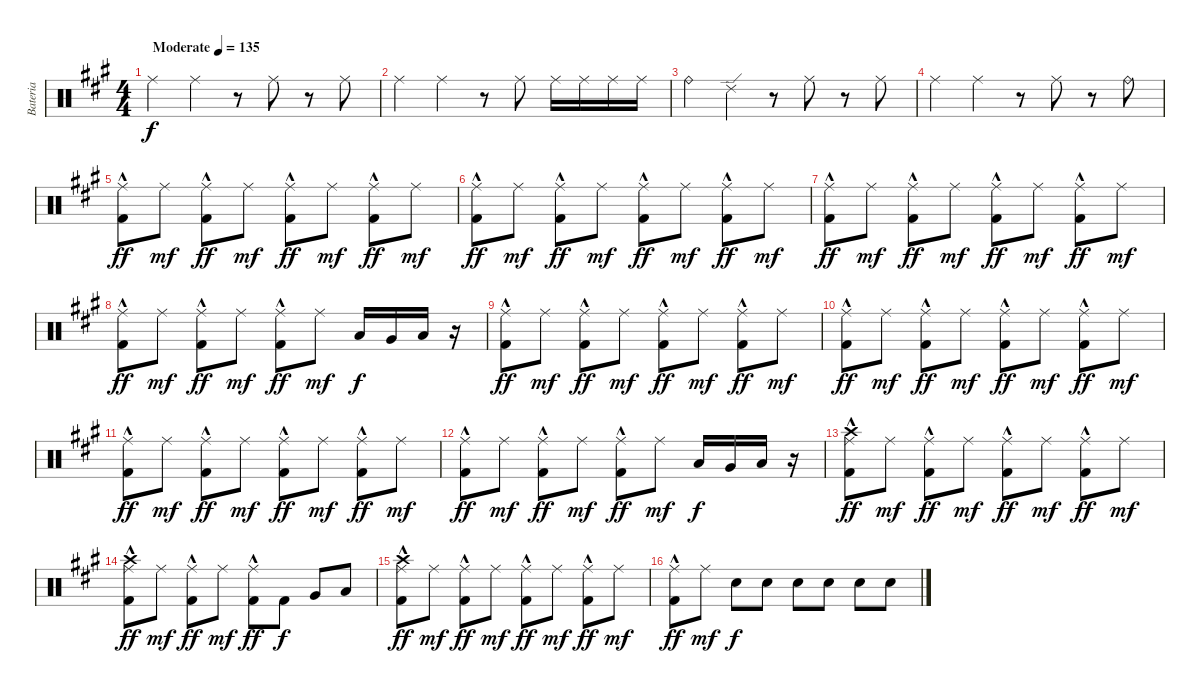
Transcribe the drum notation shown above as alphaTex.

\track ("Bateria" "Bateria") {instrument percussion}
\staff {score}
\articulation defaults
\ts (4 4)
\tempo (135 "Moderate")
\clef neutral
\ks a "Ride (middle)".4{dy f} "Ride (middle)".4
r.8 "Ride (middle)".8 r.8 "Ride (middle)".8 |
"Ride (middle)".4 "Ride (middle)".4 r.8 "Ride (middle)".8 "Ride (middle)".16 "Ride (middle)".16 "Ride (middle)".16 "Ride (middle)".16 |
"Ride (bell)".4 "Ride (edge) 2".4 r.8 "Ride (middle)".8 r.8 "Ride (middle)".8 |
"Ride (middle)".4 "Ride (middle)".4 r.8 "Ride (middle)".8 r.8 "Ride (bell)".8 |
("Ride (middle)"{hac} "Kick (hit) 2"{hac}).8{dy ff} "Ride (middle)".8{dy mf} ("Ride (middle)"{hac} "Kick (hit) 2"{hac}).8{dy ff} "Ride (middle)".8{dy mf} ("Ride (middle)"{hac} "Kick (hit) 2"{hac}).8{dy ff} "Ride (middle)".8{dy mf} ("Ride (middle)"{hac} "Kick (hit) 2"{hac}).8{dy ff} "Ride (middle)".8{dy mf} |
("Ride (middle)"{hac} "Kick (hit) 2"{hac}).8{dy ff} "Ride (middle)".8{dy mf} ("Ride (middle)"{hac} "Kick (hit) 2"{hac}).8{dy ff} "Ride (middle)".8{dy mf} ("Ride (middle)"{hac} "Kick (hit) 2"{hac}).8{dy ff} "Ride (middle)".8{dy mf} ("Ride (middle)"{hac} "Kick (hit) 2"{hac}).8{dy ff} "Ride (middle)".8{dy mf} |
("Ride (middle)"{hac} "Kick (hit) 2"{hac}).8{dy ff} "Ride (middle)".8{dy mf} ("Ride (middle)"{hac} "Kick (hit) 2"{hac}).8{dy ff} "Ride (middle)".8{dy mf} ("Ride (middle)"{hac} "Kick (hit) 2"{hac}).8{dy ff} "Ride (middle)".8{dy mf} ("Ride (middle)"{hac} "Kick (hit) 2"{hac}).8{dy ff} "Ride (middle)".8{dy mf} |
("Ride (middle)"{hac} "Kick (hit) 2"{hac}).8{dy ff} "Ride (middle)".8{dy mf} ("Ride (middle)"{hac} "Kick (hit) 2"{hac}).8{dy ff} "Ride (middle)".8{dy mf} ("Ride (middle)"{hac} "Kick (hit) 2"{hac}).8{dy ff} "Ride (middle)".8{dy mf} "Low Tom (hit)".16{dy f} "Very Low Tom (hit)".16 "Low Floor Tom (hit)".16 r.16 |
("Ride (middle)"{hac} "Kick (hit) 2"{hac}).8{dy ff} "Ride (middle)".8{dy mf} ("Ride (middle)"{hac} "Kick (hit) 2"{hac}).8{dy ff} "Ride (middle)".8{dy mf} ("Ride (middle)"{hac} "Kick (hit) 2"{hac}).8{dy ff} "Ride (middle)".8{dy mf} ("Ride (middle)"{hac} "Kick (hit) 2"{hac}).8{dy ff} "Ride (middle)".8{dy mf} |
("Ride (middle)"{hac} "Kick (hit) 2"{hac}).8{dy ff} "Ride (middle)".8{dy mf} ("Ride (middle)"{hac} "Kick (hit) 2"{hac}).8{dy ff} "Ride (middle)".8{dy mf} ("Ride (middle)"{hac} "Kick (hit) 2"{hac}).8{dy ff} "Ride (middle)".8{dy mf} ("Ride (middle)"{hac} "Kick (hit) 2"{hac}).8{dy ff} "Ride (middle)".8{dy mf} |
("Ride (middle)"{hac} "Kick (hit) 2"{hac}).8{dy ff} "Ride (middle)".8{dy mf} ("Ride (middle)"{hac} "Kick (hit) 2"{hac}).8{dy ff} "Ride (middle)".8{dy mf} ("Ride (middle)"{hac} "Kick (hit) 2"{hac}).8{dy ff} "Ride (middle)".8{dy mf} ("Ride (middle)"{hac} "Kick (hit) 2"{hac}).8{dy ff} "Ride (middle)".8{dy mf} |
("Ride (middle)"{hac} "Kick (hit) 2"{hac}).8{dy ff} "Ride (middle)".8{dy mf} ("Ride (middle)"{hac} "Kick (hit) 2"{hac}).8{dy ff} "Ride (middle)".8{dy mf} ("Ride (middle)"{hac} "Kick (hit) 2"{hac}).8{dy ff} "Ride (middle)".8{dy mf} "Low Tom (hit)".16{dy f} "Very Low Tom (hit)".16 "Low Floor Tom (hit)".16 r.16 |
("Crash high (hit)" "Ride (middle)"{hac} "Kick (hit) 2"{hac}).8{dy ff} "Ride (middle)".8{dy mf} ("Ride (middle)"{hac} "Kick (hit) 2"{hac}).8{dy ff} "Ride (middle)".8{dy mf} ("Ride (middle)"{hac} "Kick (hit) 2"{hac}).8{dy ff} "Ride (middle)".8{dy mf} ("Ride (middle)"{hac} "Kick (hit) 2"{hac}).8{dy ff} "Ride (middle)".8{dy mf} |
("Crash high (hit)" "Ride (middle)"{hac} "Kick (hit) 2"{hac}).8{dy ff} "Ride (middle)".8{dy mf} ("Ride (middle)"{hac} "Kick (hit) 2"{hac}).8{dy ff} "Ride (middle)".8{dy mf} ("Ride (middle)"{hac} "Kick (hit) 2"{hac}).8{dy ff} "Kick (hit) 2".8{dy f} "Very Low Tom (hit)".8 "Low Floor Tom (hit)".8 |
("Crash high (hit)" "Ride (middle)"{hac} "Kick (hit) 2"{hac}).8{dy ff} "Ride (middle)".8{dy mf} ("Ride (middle)"{hac} "Kick (hit) 2"{hac}).8{dy ff} "Ride (middle)".8{dy mf} ("Ride (middle)"{hac} "Kick (hit) 2"{hac}).8{dy ff} "Ride (middle)".8{dy mf} ("Ride (middle)"{hac} "Kick (hit) 2"{hac}).8{dy ff} "Ride (middle)".8{dy mf} |
("Ride (middle)"{hac} "Kick (hit) 2"{hac}).8{dy ff} "Ride (middle)".8{dy mf} "Electric Snare (hit)".8{dy f} "Electric Snare (hit)".8 "Electric Snare (hit)".8 "Electric Snare (hit)".8 "Electric Snare (hit)".8 "Electric Snare (hit)".8
